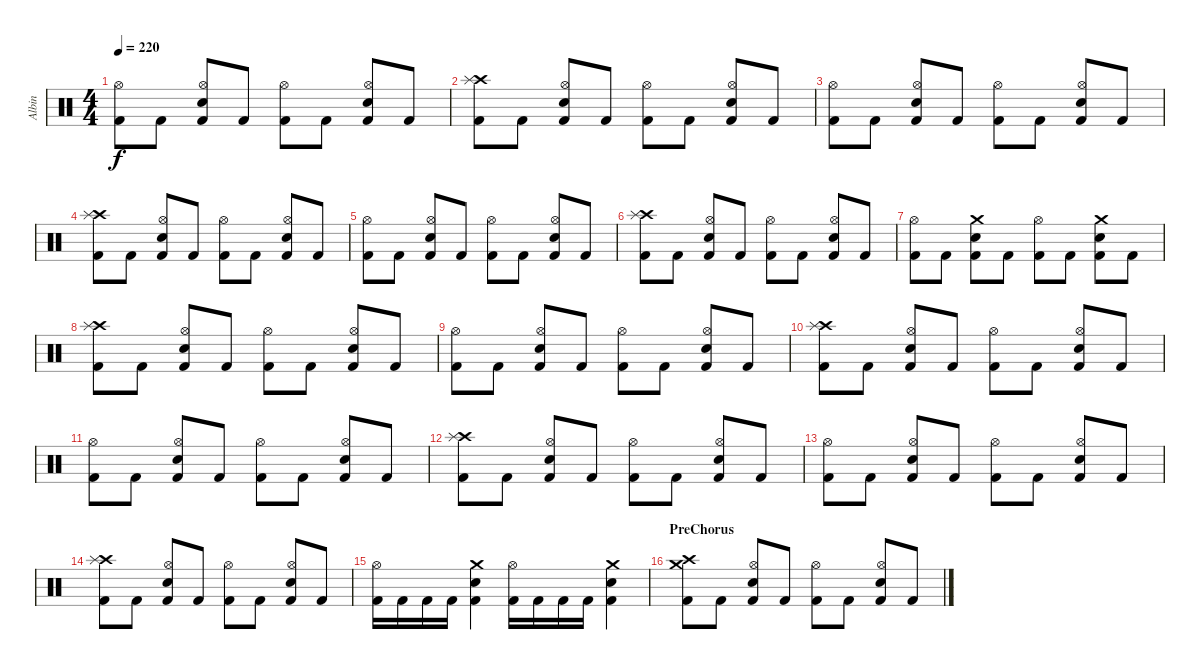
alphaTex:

\track ("Albin" "Albin") {instrument percussion}
\staff {score}
\articulation defaults
\ts (4 4)
\tempo 220
\clef neutral
\ks c
("Kick (hit) 2" "Hi-Hat (open)").8{dy f} "Kick (hit) 2".8 ("Kick (hit) 2" "Electric Snare (hit)" "Hi-Hat (open)").8 "Kick (hit) 2".8 ("Kick (hit) 2" "Hi-Hat (open)").8 "Kick (hit) 2".8 ("Kick (hit) 2" "Electric Snare (hit)" "Hi-Hat (open)").8 "Kick (hit) 2".8 |
("Kick (hit) 2" "Crash high (hit)" "Splash (hit)").8 "Kick (hit) 2".8 ("Kick (hit) 2" "Electric Snare (hit)" "Hi-Hat (open)").8 "Kick (hit) 2".8 ("Kick (hit) 2" "Hi-Hat (open)").8 "Kick (hit) 2".8 ("Kick (hit) 2" "Electric Snare (hit)" "Hi-Hat (open)").8 "Kick (hit) 2".8 |
("Kick (hit) 2" "Hi-Hat (open)").8 "Kick (hit) 2".8 ("Kick (hit) 2" "Electric Snare (hit)" "Hi-Hat (open)").8 "Kick (hit) 2".8 ("Kick (hit) 2" "Hi-Hat (open)").8 "Kick (hit) 2".8 ("Kick (hit) 2" "Electric Snare (hit)" "Hi-Hat (open)").8 "Kick (hit) 2".8 |
("Kick (hit) 2" "Crash high (hit)" "Splash (hit)").8 "Kick (hit) 2".8 ("Kick (hit) 2" "Electric Snare (hit)" "Hi-Hat (open)").8 "Kick (hit) 2".8 ("Kick (hit) 2" "Hi-Hat (open)").8 "Kick (hit) 2".8 ("Kick (hit) 2" "Electric Snare (hit)" "Hi-Hat (open)").8 "Kick (hit) 2".8 |
("Kick (hit) 2" "Hi-Hat (open)").8 "Kick (hit) 2".8 ("Kick (hit) 2" "Electric Snare (hit)" "Hi-Hat (open)").8 "Kick (hit) 2".8 ("Kick (hit) 2" "Hi-Hat (open)").8 "Kick (hit) 2".8 ("Kick (hit) 2" "Electric Snare (hit)" "Hi-Hat (open)").8 "Kick (hit) 2".8 |
("Kick (hit) 2" "Crash high (hit)" "Splash (hit)").8 "Kick (hit) 2".8 ("Kick (hit) 2" "Electric Snare (hit)" "Hi-Hat (open)").8 "Kick (hit) 2".8 ("Kick (hit) 2" "Hi-Hat (open)").8 "Kick (hit) 2".8 ("Kick (hit) 2" "Electric Snare (hit)" "Hi-Hat (open)").8 "Kick (hit) 2".8 |
("Kick (hit) 2" "Hi-Hat (open)").8 "Kick (hit) 2".8 ("Kick (hit) 2" "Electric Snare (hit)" "Crash medium (hit)").8 "Kick (hit) 2".8 ("Kick (hit) 2" "Hi-Hat (open)").8 "Kick (hit) 2".8 ("Kick (hit) 2" "Electric Snare (hit)" "Crash medium (hit)").8 "Kick (hit) 2".8 |
("Kick (hit) 2" "Crash high (hit)" "Splash (hit)").8 "Kick (hit) 2".8 ("Kick (hit) 2" "Electric Snare (hit)" "Hi-Hat (open)").8 "Kick (hit) 2".8 ("Kick (hit) 2" "Hi-Hat (open)").8 "Kick (hit) 2".8 ("Kick (hit) 2" "Electric Snare (hit)" "Hi-Hat (open)").8 "Kick (hit) 2".8 |
("Kick (hit) 2" "Hi-Hat (open)").8 "Kick (hit) 2".8 ("Kick (hit) 2" "Electric Snare (hit)" "Hi-Hat (open)").8 "Kick (hit) 2".8 ("Kick (hit) 2" "Hi-Hat (open)").8 "Kick (hit) 2".8 ("Kick (hit) 2" "Electric Snare (hit)" "Hi-Hat (open)").8 "Kick (hit) 2".8 |
("Kick (hit) 2" "Crash high (hit)" "Splash (hit)").8 "Kick (hit) 2".8 ("Kick (hit) 2" "Electric Snare (hit)" "Hi-Hat (open)").8 "Kick (hit) 2".8 ("Kick (hit) 2" "Hi-Hat (open)").8 "Kick (hit) 2".8 ("Kick (hit) 2" "Electric Snare (hit)" "Hi-Hat (open)").8 "Kick (hit) 2".8 |
("Kick (hit) 2" "Hi-Hat (open)").8 "Kick (hit) 2".8 ("Kick (hit) 2" "Electric Snare (hit)" "Hi-Hat (open)").8 "Kick (hit) 2".8 ("Kick (hit) 2" "Hi-Hat (open)").8 "Kick (hit) 2".8 ("Kick (hit) 2" "Electric Snare (hit)" "Hi-Hat (open)").8 "Kick (hit) 2".8 |
("Kick (hit) 2" "Crash high (hit)" "Splash (hit)").8 "Kick (hit) 2".8 ("Kick (hit) 2" "Electric Snare (hit)" "Hi-Hat (open)").8 "Kick (hit) 2".8 ("Kick (hit) 2" "Hi-Hat (open)").8 "Kick (hit) 2".8 ("Kick (hit) 2" "Electric Snare (hit)" "Hi-Hat (open)").8 "Kick (hit) 2".8 |
("Kick (hit) 2" "Hi-Hat (open)").8 "Kick (hit) 2".8 ("Kick (hit) 2" "Electric Snare (hit)" "Hi-Hat (open)").8 "Kick (hit) 2".8 ("Kick (hit) 2" "Hi-Hat (open)").8 "Kick (hit) 2".8 ("Kick (hit) 2" "Electric Snare (hit)" "Hi-Hat (open)").8 "Kick (hit) 2".8 |
("Kick (hit) 2" "Crash high (hit)" "Splash (hit)").8 "Kick (hit) 2".8 ("Kick (hit) 2" "Electric Snare (hit)" "Hi-Hat (open)").8 "Kick (hit) 2".8 ("Kick (hit) 2" "Hi-Hat (open)").8 "Kick (hit) 2".8 ("Kick (hit) 2" "Electric Snare (hit)" "Hi-Hat (open)").8 "Kick (hit) 2".8 |
("Kick (hit) 2" "Hi-Hat (open)").16 "Kick (hit) 2".16 "Kick (hit) 2".16 "Kick (hit) 2".16 ("Kick (hit) 2" "Electric Snare (hit)" "Crash medium (hit)").4 ("Kick (hit) 2" "Hi-Hat (open)").16 "Kick (hit) 2".16 "Kick (hit) 2".16 "Kick (hit) 2".16 ("Kick (hit) 2" "Electric Snare (hit)" "Crash medium (hit)").4 |
\section ("" "PreChorus")
("Kick (hit) 2" "Crash high (hit)" "Crash medium (hit)").8 "Kick (hit) 2".8 ("Kick (hit) 2" "Electric Snare (hit)" "Hi-Hat (open)").8 "Kick (hit) 2".8 ("Kick (hit) 2" "Hi-Hat (open)").8 "Kick (hit) 2".8 ("Kick (hit) 2" "Electric Snare (hit)" "Hi-Hat (open)").8 "Kick (hit) 2".8
